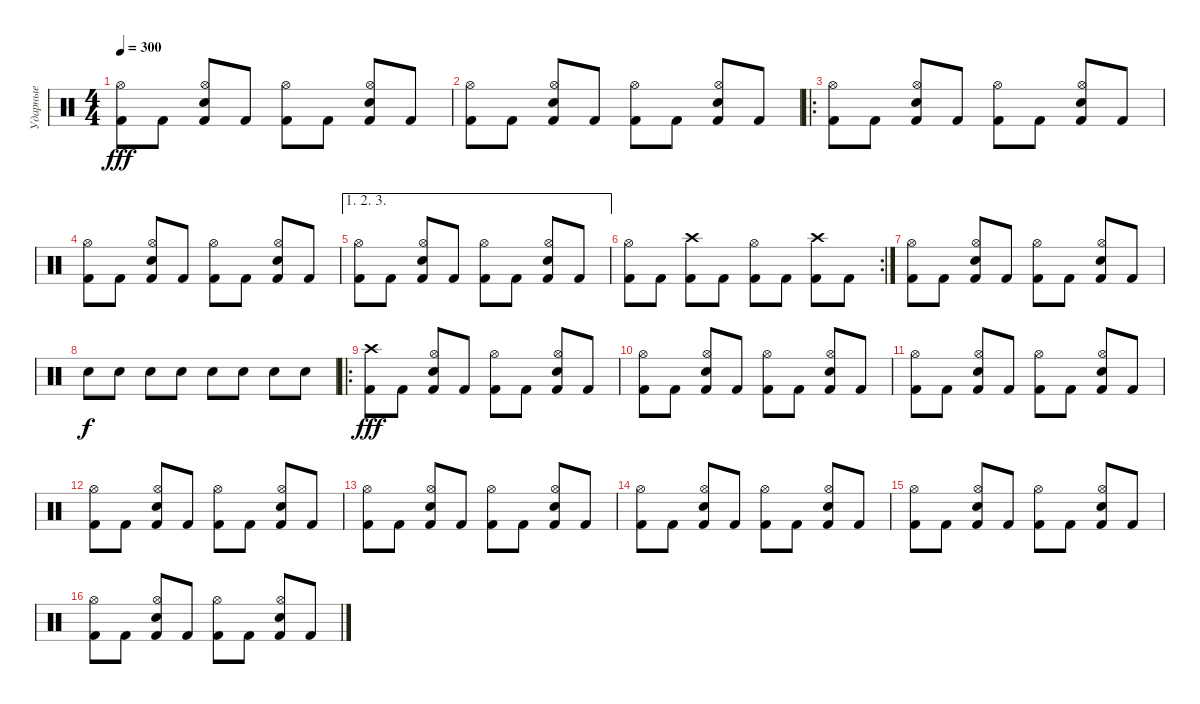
\track ("Ударные" "Ударные") {instrument percussion}
\staff {score}
\articulation defaults
\ts (4 4)
\tempo 300
\clef neutral
\ks c
("Kick (hit) 2" "Hi-Hat (open)").8{dy fff} "Kick (hit) 2".8 ("Kick (hit) 2" "Snare (hit) 2" "Hi-Hat (open)").8 "Kick (hit) 2".8 ("Kick (hit) 2" "Hi-Hat (open)").8 "Kick (hit) 2".8 ("Kick (hit) 2" "Snare (hit) 2" "Hi-Hat (open)").8 "Kick (hit) 2".8 |
("Kick (hit) 2" "Hi-Hat (open)").8 "Kick (hit) 2".8 ("Kick (hit) 2" "Snare (hit) 2" "Hi-Hat (open)").8 "Kick (hit) 2".8 ("Kick (hit) 2" "Hi-Hat (open)").8 "Kick (hit) 2".8 ("Kick (hit) 2" "Snare (hit) 2" "Hi-Hat (open)").8 "Kick (hit) 2".8 |
\ro
("Kick (hit) 2" "Hi-Hat (open)").8 "Kick (hit) 2".8 ("Kick (hit) 2" "Snare (hit) 2" "Hi-Hat (open)").8 "Kick (hit) 2".8 ("Kick (hit) 2" "Hi-Hat (open)").8 "Kick (hit) 2".8 ("Kick (hit) 2" "Snare (hit) 2" "Hi-Hat (open)").8 "Kick (hit) 2".8 |
("Kick (hit) 2" "Hi-Hat (open)").8 "Kick (hit) 2".8 ("Kick (hit) 2" "Snare (hit) 2" "Hi-Hat (open)").8 "Kick (hit) 2".8 ("Kick (hit) 2" "Hi-Hat (open)").8 "Kick (hit) 2".8 ("Kick (hit) 2" "Snare (hit) 2" "Hi-Hat (open)").8 "Kick (hit) 2".8 |
\ae (1 2 3)
("Kick (hit) 2" "Hi-Hat (open)").8 "Kick (hit) 2".8 ("Kick (hit) 2" "Snare (hit) 2" "Hi-Hat (open)").8 "Kick (hit) 2".8 ("Kick (hit) 2" "Hi-Hat (open)").8 "Kick (hit) 2".8 ("Kick (hit) 2" "Snare (hit) 2" "Hi-Hat (open)").8 "Kick (hit) 2".8 |
\rc 2
("Kick (hit) 2" "Hi-Hat (open)").8 "Kick (hit) 2".8 ("Kick (hit) 2" "Crash high (hit)").8 "Kick (hit) 2".8 ("Kick (hit) 2" "Hi-Hat (open)").8 "Kick (hit) 2".8 ("Kick (hit) 2" "Crash high (hit)").8 "Kick (hit) 2".8 |
("Kick (hit) 2" "Hi-Hat (open)").8 "Kick (hit) 2".8 ("Kick (hit) 2" "Snare (hit) 2" "Hi-Hat (open)").8 "Kick (hit) 2".8 ("Kick (hit) 2" "Hi-Hat (open)").8 "Kick (hit) 2".8 ("Kick (hit) 2" "Snare (hit) 2" "Hi-Hat (open)").8 "Kick (hit) 2".8 |
"Snare (hit) 2".8{dy f} "Snare (hit) 2".8 "Snare (hit) 2".8 "Snare (hit) 2".8 "Snare (hit) 2".8 "Snare (hit) 2".8 "Snare (hit) 2".8 "Snare (hit) 2".8 |
\ro
("Kick (hit) 2" "Crash high (hit)").8{dy fff} "Kick (hit) 2".8 ("Kick (hit) 2" "Snare (hit) 2" "Hi-Hat (open)").8 "Kick (hit) 2".8 ("Kick (hit) 2" "Hi-Hat (open)").8 "Kick (hit) 2".8 ("Kick (hit) 2" "Snare (hit) 2" "Hi-Hat (open)").8 "Kick (hit) 2".8 |
("Kick (hit) 2" "Hi-Hat (open)").8 "Kick (hit) 2".8 ("Kick (hit) 2" "Snare (hit) 2" "Hi-Hat (open)").8 "Kick (hit) 2".8 ("Kick (hit) 2" "Hi-Hat (open)").8 "Kick (hit) 2".8 ("Kick (hit) 2" "Snare (hit) 2" "Hi-Hat (open)").8 "Kick (hit) 2".8 |
("Kick (hit) 2" "Hi-Hat (open)").8 "Kick (hit) 2".8 ("Kick (hit) 2" "Snare (hit) 2" "Hi-Hat (open)").8 "Kick (hit) 2".8 ("Kick (hit) 2" "Hi-Hat (open)").8 "Kick (hit) 2".8 ("Kick (hit) 2" "Snare (hit) 2" "Hi-Hat (open)").8 "Kick (hit) 2".8 |
("Kick (hit) 2" "Hi-Hat (open)").8 "Kick (hit) 2".8 ("Kick (hit) 2" "Snare (hit) 2" "Hi-Hat (open)").8 "Kick (hit) 2".8 ("Kick (hit) 2" "Hi-Hat (open)").8 "Kick (hit) 2".8 ("Kick (hit) 2" "Snare (hit) 2" "Hi-Hat (open)").8 "Kick (hit) 2".8 |
("Kick (hit) 2" "Hi-Hat (open)").8 "Kick (hit) 2".8 ("Kick (hit) 2" "Snare (hit) 2" "Hi-Hat (open)").8 "Kick (hit) 2".8 ("Kick (hit) 2" "Hi-Hat (open)").8 "Kick (hit) 2".8 ("Kick (hit) 2" "Snare (hit) 2" "Hi-Hat (open)").8 "Kick (hit) 2".8 |
("Kick (hit) 2" "Hi-Hat (open)").8 "Kick (hit) 2".8 ("Kick (hit) 2" "Snare (hit) 2" "Hi-Hat (open)").8 "Kick (hit) 2".8 ("Kick (hit) 2" "Hi-Hat (open)").8 "Kick (hit) 2".8 ("Kick (hit) 2" "Snare (hit) 2" "Hi-Hat (open)").8 "Kick (hit) 2".8 |
("Kick (hit) 2" "Hi-Hat (open)").8 "Kick (hit) 2".8 ("Kick (hit) 2" "Snare (hit) 2" "Hi-Hat (open)").8 "Kick (hit) 2".8 ("Kick (hit) 2" "Hi-Hat (open)").8 "Kick (hit) 2".8 ("Kick (hit) 2" "Snare (hit) 2" "Hi-Hat (open)").8 "Kick (hit) 2".8 |
("Kick (hit) 2" "Hi-Hat (open)").8 "Kick (hit) 2".8 ("Kick (hit) 2" "Snare (hit) 2" "Hi-Hat (open)").8 "Kick (hit) 2".8 ("Kick (hit) 2" "Hi-Hat (open)").8 "Kick (hit) 2".8 ("Kick (hit) 2" "Snare (hit) 2" "Hi-Hat (open)").8 "Kick (hit) 2".8
